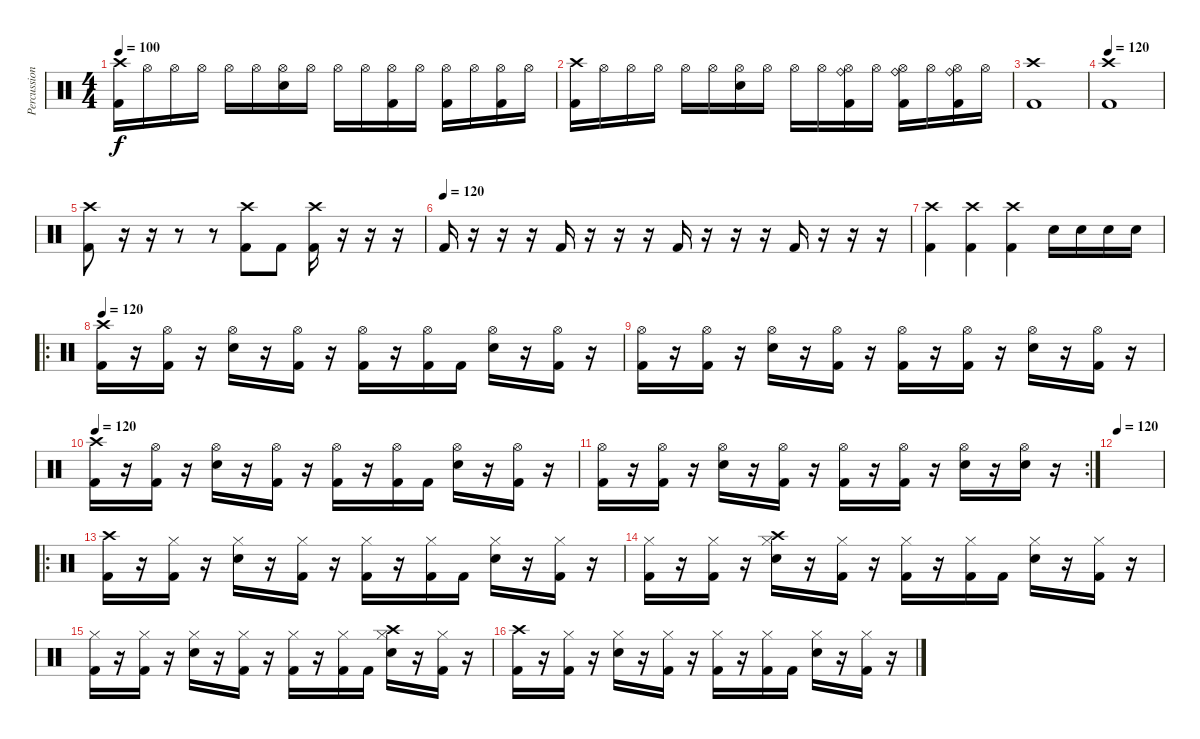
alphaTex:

\track ("Percussion" "Percussion") {instrument percussion}
\staff {score}
\articulation defaults
\ts (4 4)
\tempo 100
\clef neutral
\ks c
("Crash high (hit)" "Kick (hit) 2").16{dy f} "Hi-Hat (open)".16 "Hi-Hat (open)".16 "Hi-Hat (open)".16 "Hi-Hat (open)".16 "Hi-Hat (open)".16 ("Hi-Hat (open)" "Snare (hit) 2").16 "Hi-Hat (open)".16 "Hi-Hat (open)".16 "Hi-Hat (open)".16 ("Hi-Hat (open)" "Kick (hit) 2").16 "Hi-Hat (open)".16 ("Hi-Hat (open)" "Kick (hit) 2").16 "Hi-Hat (open)".16 ("Hi-Hat (open)" "Kick (hit) 2").16 "Hi-Hat (open)".16 |
("Crash high (hit)" "Kick (hit) 2").16 "Hi-Hat (open)".16 "Hi-Hat (open)".16 "Hi-Hat (open)".16 "Hi-Hat (open)".16 "Hi-Hat (open)".16 ("Hi-Hat (open)" "Snare (hit) 2").16 "Hi-Hat (open)".16 "Hi-Hat (open)".16 "Hi-Hat (open)".16 ("Hi-Hat (open)" "Ride (bell)" "Kick (hit) 2").16 "Hi-Hat (open)".16 ("Hi-Hat (open)" "Ride (bell)" "Kick (hit) 2").16 "Hi-Hat (open)".16 ("Hi-Hat (open)" "Ride (bell)" "Kick (hit) 2").16 "Hi-Hat (open)".16 |
("Crash high (hit)" "Kick (hit) 2").1 |
\tempo 120
("Crash high (hit)" "Kick (hit) 2").1 |
("Crash high (hit)" "Kick (hit) 2").8 r.16 r.16 r.8 r.8 ("Crash high (hit)" "Kick (hit) 2").8 "Kick (hit) 2".8 ("Crash high (hit)" "Kick (hit) 2").16 r.16 r.16 r.16 |
\tempo (120)
"Kick (hit) 2".16 r.16 r.16 r.16 "Kick (hit) 2".16 r.16 r.16 r.16 "Kick (hit) 2".16 r.16 r.16 r.16 "Kick (hit) 2".16 r.16 r.16 r.16 |
("Crash high (hit)" "Kick (hit) 2").4 ("Crash high (hit)" "Kick (hit) 2").4 ("Crash high (hit)" "Kick (hit) 2").4 "Snare (hit) 2".16 "Snare (hit) 2".16 "Snare (hit) 2".16 "Snare (hit) 2".16 |
\ro
\tempo 120
("Crash high (hit)" "Kick (hit) 2").16 r.16 ("Hi-Hat (open)" "Kick (hit) 2").16 r.16 ("Hi-Hat (open)" "Snare (hit) 2").16 r.16 ("Hi-Hat (open)" "Kick (hit) 2").16 r.16 ("Hi-Hat (open)" "Kick (hit) 2").16 r.16 ("Hi-Hat (open)" "Kick (hit) 2").16 "Kick (hit) 2".16 ("Hi-Hat (open)" "Snare (hit) 2").16 r.16 ("Hi-Hat (open)" "Kick (hit) 2").16 r.16 |
("Hi-Hat (open)" "Kick (hit) 2").16 r.16 ("Hi-Hat (open)" "Kick (hit) 2").16 r.16 ("Hi-Hat (open)" "Snare (hit) 2").16 r.16 ("Hi-Hat (open)" "Kick (hit) 2").16 r.16 ("Hi-Hat (open)" "Kick (hit) 2").16 r.16 ("Hi-Hat (open)" "Kick (hit) 2").16 r.16 ("Hi-Hat (open)" "Snare (hit) 2").16 r.16 ("Hi-Hat (open)" "Kick (hit) 2").16 r.16 |
\tempo 120
("Crash high (hit)" "Kick (hit) 2").16 r.16 ("Hi-Hat (open)" "Kick (hit) 2").16 r.16 ("Hi-Hat (open)" "Snare (hit) 2").16 r.16 ("Hi-Hat (open)" "Kick (hit) 2").16 r.16 ("Hi-Hat (open)" "Kick (hit) 2").16 r.16 ("Hi-Hat (open)" "Kick (hit) 2").16 "Kick (hit) 2".16 ("Hi-Hat (open)" "Snare (hit) 2").16 r.16 ("Hi-Hat (open)" "Kick (hit) 2").16 r.16 |
\rc 2
("Hi-Hat (open)" "Kick (hit) 2").16 r.16 ("Hi-Hat (open)" "Kick (hit) 2").16 r.16 ("Hi-Hat (open)" "Snare (hit) 2").16 r.16 ("Hi-Hat (open)" "Kick (hit) 2").16 r.16 ("Hi-Hat (open)" "Kick (hit) 2").16 r.16 ("Hi-Hat (open)" "Kick (hit) 2").16 r.16 ("Hi-Hat (open)" "Snare (hit) 2").16 r.16 ("Hi-Hat (open)" "Snare (hit) 2").16 r.16 |
\tempo 120
|
\ro
("Crash high (hit)" "Kick (hit) 2").16 r.16 ("Hi-Hat (closed)" "Kick (hit) 2").16 r.16 ("Hi-Hat (closed)" "Snare (hit) 2").16 r.16 ("Hi-Hat (closed)" "Kick (hit) 2").16 r.16 ("Hi-Hat (closed)" "Kick (hit) 2").16 r.16 ("Hi-Hat (closed)" "Kick (hit) 2").16 "Kick (hit) 2".16 ("Hi-Hat (closed)" "Snare (hit) 2").16 r.16 ("Hi-Hat (closed)" "Kick (hit) 2").16 r.16 |
("Hi-Hat (closed)" "Kick (hit) 2").16 r.16 ("Hi-Hat (closed)" "Kick (hit) 2").16 r.16 ("Crash high (hit)" "Hi-Hat (closed)" "Snare (hit) 2").16 r.16 ("Hi-Hat (closed)" "Kick (hit) 2").16 r.16 ("Hi-Hat (closed)" "Kick (hit) 2").16 r.16 ("Hi-Hat (closed)" "Kick (hit) 2").16 "Kick (hit) 2".16 ("Hi-Hat (closed)" "Snare (hit) 2").16 r.16 ("Hi-Hat (closed)" "Kick (hit) 2").16 r.16 |
("Hi-Hat (closed)" "Kick (hit) 2").16 r.16 ("Hi-Hat (closed)" "Kick (hit) 2").16 r.16 ("Hi-Hat (closed)" "Snare (hit) 2").16 r.16 ("Hi-Hat (closed)" "Kick (hit) 2").16 r.16 ("Hi-Hat (closed)" "Kick (hit) 2").16 r.16 ("Hi-Hat (closed)" "Kick (hit) 2").16 "Kick (hit) 2".16 ("Crash high (hit)" "Hi-Hat (closed)" "Snare (hit) 2").16 r.16 ("Hi-Hat (closed)" "Kick (hit) 2").16 r.16 |
("Crash high (hit)" "Kick (hit) 2").16 r.16 ("Hi-Hat (closed)" "Kick (hit) 2").16 r.16 ("Hi-Hat (closed)" "Snare (hit) 2").16 r.16 ("Hi-Hat (closed)" "Kick (hit) 2").16 r.16 ("Hi-Hat (closed)" "Kick (hit) 2").16 r.16 ("Hi-Hat (closed)" "Kick (hit) 2").16 "Kick (hit) 2".16 ("Hi-Hat (closed)" "Snare (hit) 2").16 r.16 ("Hi-Hat (closed)" "Kick (hit) 2").16 r.16
